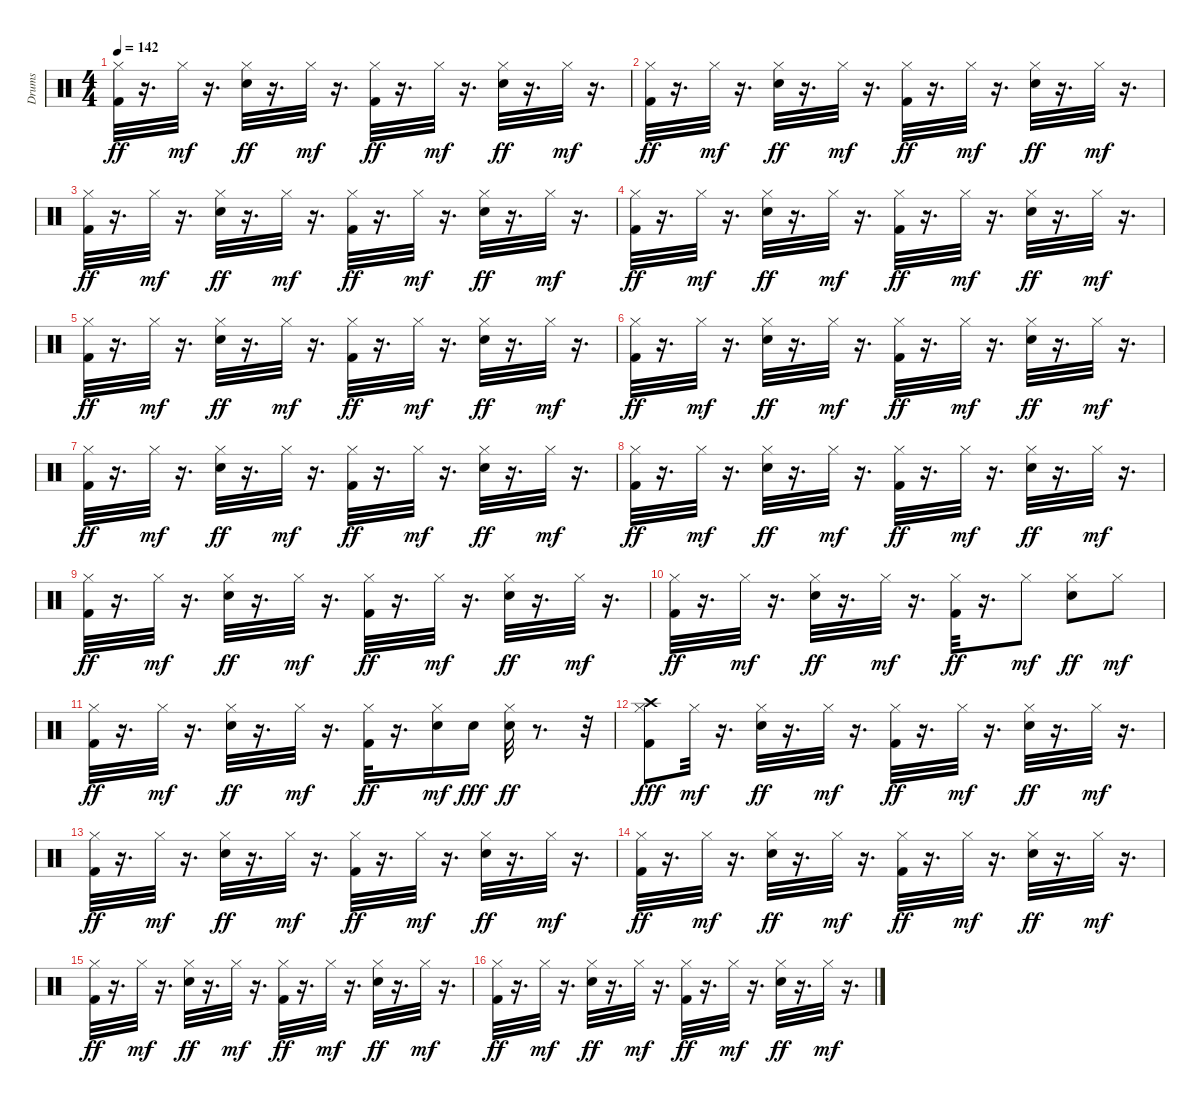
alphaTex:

\track ("Drums" "Drums") {instrument percussion}
\staff {score}
\articulation defaults
\ts (4 4)
\tempo 142
\clef neutral
\ks c
("Kick (hit) 2" "Hi-Hat (closed)").32{dy ff} r.16{d} "Hi-Hat (closed)".32{dy mf} r.16{d} ("Snare (hit) 2" "Hi-Hat (closed)").32{dy ff} r.16{d} "Hi-Hat (closed)".32{dy mf} r.16{d} ("Kick (hit) 2" "Hi-Hat (closed)").32{dy ff} r.16{d} "Hi-Hat (closed)".32{dy mf} r.16{d} ("Snare (hit) 2" "Hi-Hat (closed)").32{dy ff} r.16{d} "Hi-Hat (closed)".32{dy mf} r.16{d} |
("Kick (hit) 2" "Hi-Hat (closed)").32{dy ff} r.16{d} "Hi-Hat (closed)".32{dy mf} r.16{d} ("Snare (hit) 2" "Hi-Hat (closed)").32{dy ff} r.16{d} "Hi-Hat (closed)".32{dy mf} r.16{d} ("Kick (hit) 2" "Hi-Hat (closed)").32{dy ff} r.16{d} "Hi-Hat (closed)".32{dy mf} r.16{d} ("Snare (hit) 2" "Hi-Hat (closed)").32{dy ff} r.16{d} "Hi-Hat (closed)".32{dy mf} r.16{d} |
("Kick (hit) 2" "Hi-Hat (closed)").32{dy ff} r.16{d} "Hi-Hat (closed)".32{dy mf} r.16{d} ("Snare (hit) 2" "Hi-Hat (closed)").32{dy ff} r.16{d} "Hi-Hat (closed)".32{dy mf} r.16{d} ("Kick (hit) 2" "Hi-Hat (closed)").32{dy ff} r.16{d} "Hi-Hat (closed)".32{dy mf} r.16{d} ("Snare (hit) 2" "Hi-Hat (closed)").32{dy ff} r.16{d} "Hi-Hat (closed)".32{dy mf} r.16{d} |
("Kick (hit) 2" "Hi-Hat (closed)").32{dy ff} r.16{d} "Hi-Hat (closed)".32{dy mf} r.16{d} ("Snare (hit) 2" "Hi-Hat (closed)").32{dy ff} r.16{d} "Hi-Hat (closed)".32{dy mf} r.16{d} ("Kick (hit) 2" "Hi-Hat (closed)").32{dy ff} r.16{d} "Hi-Hat (closed)".32{dy mf} r.16{d} ("Snare (hit) 2" "Hi-Hat (closed)").32{dy ff} r.16{d} "Hi-Hat (closed)".32{dy mf} r.16{d} |
("Kick (hit) 2" "Hi-Hat (closed)").32{dy ff} r.16{d} "Hi-Hat (closed)".32{dy mf} r.16{d} ("Snare (hit) 2" "Hi-Hat (closed)").32{dy ff} r.16{d} "Hi-Hat (closed)".32{dy mf} r.16{d} ("Kick (hit) 2" "Hi-Hat (closed)").32{dy ff} r.16{d} "Hi-Hat (closed)".32{dy mf} r.16{d} ("Snare (hit) 2" "Hi-Hat (closed)").32{dy ff} r.16{d} "Hi-Hat (closed)".32{dy mf} r.16{d} |
("Kick (hit) 2" "Hi-Hat (closed)").32{dy ff} r.16{d} "Hi-Hat (closed)".32{dy mf} r.16{d} ("Snare (hit) 2" "Hi-Hat (closed)").32{dy ff} r.16{d} "Hi-Hat (closed)".32{dy mf} r.16{d} ("Kick (hit) 2" "Hi-Hat (closed)").32{dy ff} r.16{d} "Hi-Hat (closed)".32{dy mf} r.16{d} ("Snare (hit) 2" "Hi-Hat (closed)").32{dy ff} r.16{d} "Hi-Hat (closed)".32{dy mf} r.16{d} |
("Kick (hit) 2" "Hi-Hat (closed)").32{dy ff} r.16{d} "Hi-Hat (closed)".32{dy mf} r.16{d} ("Snare (hit) 2" "Hi-Hat (closed)").32{dy ff} r.16{d} "Hi-Hat (closed)".32{dy mf} r.16{d} ("Kick (hit) 2" "Hi-Hat (closed)").32{dy ff} r.16{d} "Hi-Hat (closed)".32{dy mf} r.16{d} ("Snare (hit) 2" "Hi-Hat (closed)").32{dy ff} r.16{d} "Hi-Hat (closed)".32{dy mf} r.16{d} |
("Kick (hit) 2" "Hi-Hat (closed)").32{dy ff} r.16{d} "Hi-Hat (closed)".32{dy mf} r.16{d} ("Snare (hit) 2" "Hi-Hat (closed)").32{dy ff} r.16{d} "Hi-Hat (closed)".32{dy mf} r.16{d} ("Kick (hit) 2" "Hi-Hat (closed)").32{dy ff} r.16{d} "Hi-Hat (closed)".32{dy mf} r.16{d} ("Snare (hit) 2" "Hi-Hat (closed)").32{dy ff} r.16{d} "Hi-Hat (closed)".32{dy mf} r.16{d} |
("Kick (hit) 2" "Hi-Hat (closed)").32{dy ff} r.16{d} "Hi-Hat (closed)".32{dy mf} r.16{d} ("Snare (hit) 2" "Hi-Hat (closed)").32{dy ff} r.16{d} "Hi-Hat (closed)".32{dy mf} r.16{d} ("Kick (hit) 2" "Hi-Hat (closed)").32{dy ff} r.16{d} "Hi-Hat (closed)".32{dy mf} r.16{d} ("Snare (hit) 2" "Hi-Hat (closed)").32{dy ff} r.16{d} "Hi-Hat (closed)".32{dy mf} r.16{d} |
("Kick (hit) 2" "Hi-Hat (closed)").32{dy ff} r.16{d} "Hi-Hat (closed)".32{dy mf} r.16{d} ("Snare (hit) 2" "Hi-Hat (closed)").32{dy ff} r.16{d} "Hi-Hat (closed)".32{dy mf} r.16{d} ("Kick (hit) 2" "Hi-Hat (closed)").32{dy ff} r.16{d} "Hi-Hat (closed)".8{dy mf} ("Snare (hit) 2" "Hi-Hat (closed)").8{dy ff} "Hi-Hat (closed)".8{dy mf} |
("Kick (hit) 2" "Hi-Hat (closed)").32{dy ff} r.16{d} "Hi-Hat (closed)".32{dy mf} r.16{d} ("Snare (hit) 2" "Hi-Hat (closed)").32{dy ff} r.16{d} "Hi-Hat (closed)".32{dy mf} r.16{d} ("Kick (hit) 2" "Hi-Hat (closed)").32{dy ff} r.16{d} ("Snare (hit) 2" "Hi-Hat (closed)").16{dy mf} "Snare (hit) 2".16{dy fff} ("Snare (hit) 2" "Hi-Hat (closed)").32{dy ff} r.8{d} r.32 |
("Kick (hit) 2" "Hi-Hat (closed)" "Crash high (hit)").8{dy fff} "Hi-Hat (closed)".32{dy mf} r.16{d} ("Snare (hit) 2" "Hi-Hat (closed)").32{dy ff} r.16{d} "Hi-Hat (closed)".32{dy mf} r.16{d} ("Kick (hit) 2" "Hi-Hat (closed)").32{dy ff} r.16{d} "Hi-Hat (closed)".32{dy mf} r.16{d} ("Snare (hit) 2" "Hi-Hat (closed)").32{dy ff} r.16{d} "Hi-Hat (closed)".32{dy mf} r.16{d} |
("Kick (hit) 2" "Hi-Hat (closed)").32{dy ff} r.16{d} "Hi-Hat (closed)".32{dy mf} r.16{d} ("Snare (hit) 2" "Hi-Hat (closed)").32{dy ff} r.16{d} "Hi-Hat (closed)".32{dy mf} r.16{d} ("Kick (hit) 2" "Hi-Hat (closed)").32{dy ff} r.16{d} "Hi-Hat (closed)".32{dy mf} r.16{d} ("Snare (hit) 2" "Hi-Hat (closed)").32{dy ff} r.16{d} "Hi-Hat (closed)".32{dy mf} r.16{d} |
("Kick (hit) 2" "Hi-Hat (closed)").32{dy ff} r.16{d} "Hi-Hat (closed)".32{dy mf} r.16{d} ("Snare (hit) 2" "Hi-Hat (closed)").32{dy ff} r.16{d} "Hi-Hat (closed)".32{dy mf} r.16{d} ("Kick (hit) 2" "Hi-Hat (closed)").32{dy ff} r.16{d} "Hi-Hat (closed)".32{dy mf} r.16{d} ("Snare (hit) 2" "Hi-Hat (closed)").32{dy ff} r.16{d} "Hi-Hat (closed)".32{dy mf} r.16{d} |
("Kick (hit) 2" "Hi-Hat (closed)").32{dy ff} r.16{d} "Hi-Hat (closed)".32{dy mf} r.16{d} ("Snare (hit) 2" "Hi-Hat (closed)").32{dy ff} r.16{d} "Hi-Hat (closed)".32{dy mf} r.16{d} ("Kick (hit) 2" "Hi-Hat (closed)").32{dy ff} r.16{d} "Hi-Hat (closed)".32{dy mf} r.16{d} ("Snare (hit) 2" "Hi-Hat (closed)").32{dy ff} r.16{d} "Hi-Hat (closed)".32{dy mf} r.16{d} |
("Kick (hit) 2" "Hi-Hat (closed)").32{dy ff} r.16{d} "Hi-Hat (closed)".32{dy mf} r.16{d} ("Snare (hit) 2" "Hi-Hat (closed)").32{dy ff} r.16{d} "Hi-Hat (closed)".32{dy mf} r.16{d} ("Kick (hit) 2" "Hi-Hat (closed)").32{dy ff} r.16{d} "Hi-Hat (closed)".32{dy mf} r.16{d} ("Snare (hit) 2" "Hi-Hat (closed)").32{dy ff} r.16{d} "Hi-Hat (closed)".32{dy mf} r.16{d}
